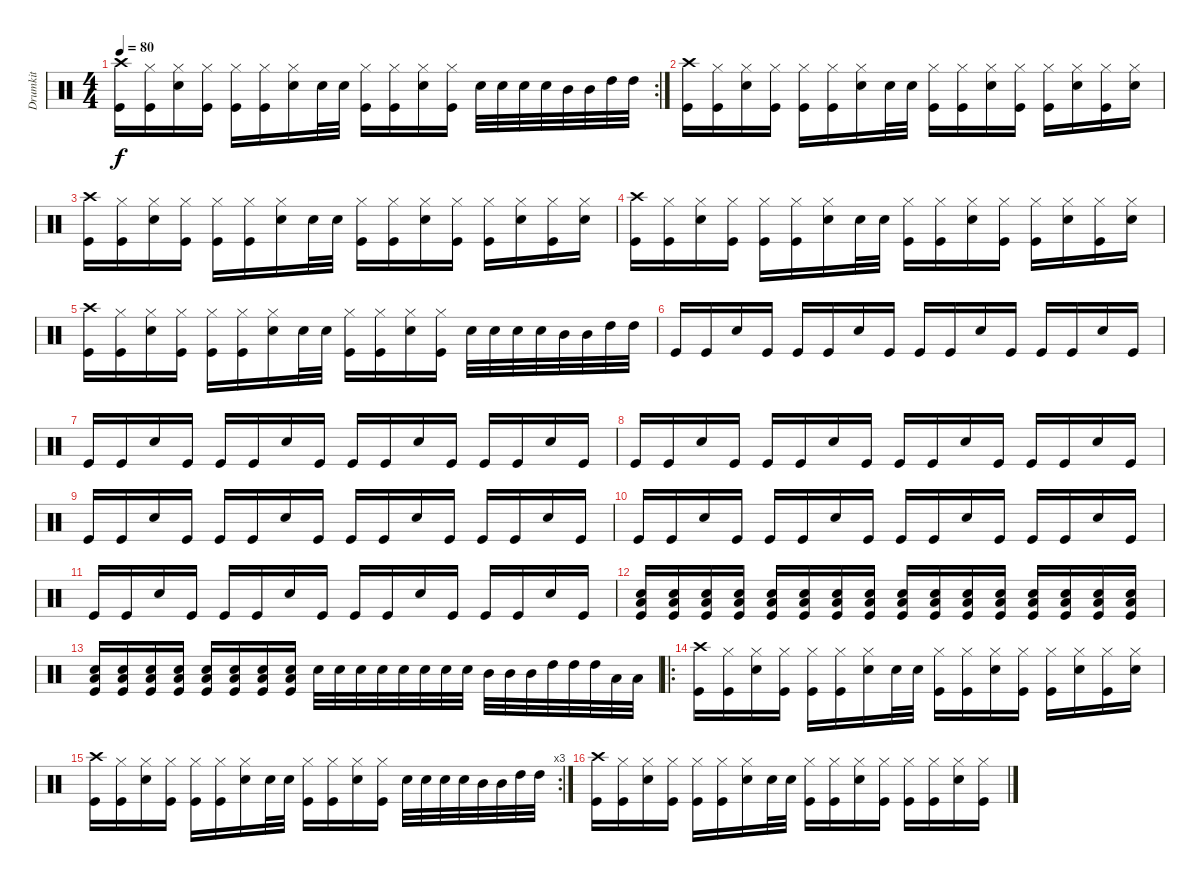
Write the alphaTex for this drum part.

\track ("Drumkit" "Drumkit") {instrument percussion}
\staff {score}
\articulation defaults
\rc 2
\ts (4 4)
\tempo 80
\clef neutral
\ks c
("Crash high (hit)" "Kick (hit)").16{dy f} ("Hi-Hat (closed)" "Kick (hit)").16 ("Hi-Hat (closed)" "Snare (hit) 2").16 ("Hi-Hat (closed)" "Kick (hit)").16 ("Hi-Hat (closed)" "Kick (hit)").16 ("Hi-Hat (closed)" "Kick (hit)").16 ("Hi-Hat (closed)" "Snare (hit) 2").16 "Snare (hit) 2".32 "Snare (hit) 2".32 ("Hi-Hat (closed)" "Kick (hit)").16 ("Hi-Hat (closed)" "Kick (hit)").16 ("Hi-Hat (closed)" "Snare (hit) 2").16 ("Hi-Hat (closed)" "Kick (hit)").16 "Snare (hit) 2".32 "Snare (hit) 2".32 "Snare (hit) 2".32 "Snare (hit) 2".32 "Mid Tom (hit)".32 "Mid Tom (hit)".32 "High Tom (hit)".32 "High Tom (hit)".32 |
("Crash high (hit)" "Kick (hit)").16 ("Hi-Hat (closed)" "Kick (hit)").16 ("Hi-Hat (closed)" "Snare (hit) 2").16 ("Hi-Hat (closed)" "Kick (hit)").16 ("Hi-Hat (closed)" "Kick (hit)").16 ("Hi-Hat (closed)" "Kick (hit)").16 ("Hi-Hat (closed)" "Snare (hit) 2").16 "Snare (hit) 2".32 "Snare (hit) 2".32 ("Hi-Hat (closed)" "Kick (hit)").16 ("Hi-Hat (closed)" "Kick (hit)").16 ("Hi-Hat (closed)" "Snare (hit) 2").16 ("Hi-Hat (closed)" "Kick (hit)").16 ("Hi-Hat (closed)" "Kick (hit)").16 ("Hi-Hat (closed)" "Snare (hit) 2").16 ("Hi-Hat (closed)" "Kick (hit)").16 ("Hi-Hat (closed)" "Snare (hit) 2").16 |
("Crash high (hit)" "Kick (hit)").16 ("Hi-Hat (closed)" "Kick (hit)").16 ("Hi-Hat (closed)" "Snare (hit) 2").16 ("Hi-Hat (closed)" "Kick (hit)").16 ("Hi-Hat (closed)" "Kick (hit)").16 ("Hi-Hat (closed)" "Kick (hit)").16 ("Hi-Hat (closed)" "Snare (hit) 2").16 "Snare (hit) 2".32 "Snare (hit) 2".32 ("Hi-Hat (closed)" "Kick (hit)").16 ("Hi-Hat (closed)" "Kick (hit)").16 ("Hi-Hat (closed)" "Snare (hit) 2").16 ("Hi-Hat (closed)" "Kick (hit)").16 ("Hi-Hat (closed)" "Kick (hit)").16 ("Hi-Hat (closed)" "Snare (hit) 2").16 ("Hi-Hat (closed)" "Kick (hit)").16 ("Hi-Hat (closed)" "Snare (hit) 2").16 |
("Crash high (hit)" "Kick (hit)").16 ("Hi-Hat (closed)" "Kick (hit)").16 ("Hi-Hat (closed)" "Snare (hit) 2").16 ("Hi-Hat (closed)" "Kick (hit)").16 ("Hi-Hat (closed)" "Kick (hit)").16 ("Hi-Hat (closed)" "Kick (hit)").16 ("Hi-Hat (closed)" "Snare (hit) 2").16 "Snare (hit) 2".32 "Snare (hit) 2".32 ("Hi-Hat (closed)" "Kick (hit)").16 ("Hi-Hat (closed)" "Kick (hit)").16 ("Hi-Hat (closed)" "Snare (hit) 2").16 ("Hi-Hat (closed)" "Kick (hit)").16 ("Hi-Hat (closed)" "Kick (hit)").16 ("Hi-Hat (closed)" "Snare (hit) 2").16 ("Hi-Hat (closed)" "Kick (hit)").16 ("Hi-Hat (closed)" "Snare (hit) 2").16 |
("Crash high (hit)" "Kick (hit)").16 ("Hi-Hat (closed)" "Kick (hit)").16 ("Hi-Hat (closed)" "Snare (hit) 2").16 ("Hi-Hat (closed)" "Kick (hit)").16 ("Hi-Hat (closed)" "Kick (hit)").16 ("Hi-Hat (closed)" "Kick (hit)").16 ("Hi-Hat (closed)" "Snare (hit) 2").16 "Snare (hit) 2".32 "Snare (hit) 2".32 ("Hi-Hat (closed)" "Kick (hit)").16 ("Hi-Hat (closed)" "Kick (hit)").16 ("Hi-Hat (closed)" "Snare (hit) 2").16 ("Hi-Hat (closed)" "Kick (hit)").16 "Snare (hit) 2".32 "Snare (hit) 2".32 "Snare (hit) 2".32 "Snare (hit) 2".32 "Mid Tom (hit)".32 "Mid Tom (hit)".32 "High Tom (hit)".32 "High Tom (hit)".32 |
"Kick (hit)".16 "Kick (hit)".16 "Snare (hit) 2".16 "Kick (hit)".16 "Kick (hit)".16 "Kick (hit)".16 "Snare (hit) 2".16 "Kick (hit)".16 "Kick (hit)".16 "Kick (hit)".16 "Snare (hit) 2".16 "Kick (hit)".16 "Kick (hit)".16 "Kick (hit)".16 "Snare (hit) 2".16 "Kick (hit)".16 |
"Kick (hit)".16 "Kick (hit)".16 "Snare (hit) 2".16 "Kick (hit)".16 "Kick (hit)".16 "Kick (hit)".16 "Snare (hit) 2".16 "Kick (hit)".16 "Kick (hit)".16 "Kick (hit)".16 "Snare (hit) 2".16 "Kick (hit)".16 "Kick (hit)".16 "Kick (hit)".16 "Snare (hit) 2".16 "Kick (hit)".16 |
"Kick (hit)".16 "Kick (hit)".16 "Snare (hit) 2".16 "Kick (hit)".16 "Kick (hit)".16 "Kick (hit)".16 "Snare (hit) 2".16 "Kick (hit)".16 "Kick (hit)".16 "Kick (hit)".16 "Snare (hit) 2".16 "Kick (hit)".16 "Kick (hit)".16 "Kick (hit)".16 "Snare (hit) 2".16 "Kick (hit)".16 |
"Kick (hit)".16 "Kick (hit)".16 "Snare (hit) 2".16 "Kick (hit)".16 "Kick (hit)".16 "Kick (hit)".16 "Snare (hit) 2".16 "Kick (hit)".16 "Kick (hit)".16 "Kick (hit)".16 "Snare (hit) 2".16 "Kick (hit)".16 "Kick (hit)".16 "Kick (hit)".16 "Snare (hit) 2".16 "Kick (hit)".16 |
"Kick (hit)".16 "Kick (hit)".16 "Snare (hit) 2".16 "Kick (hit)".16 "Kick (hit)".16 "Kick (hit)".16 "Snare (hit) 2".16 "Kick (hit)".16 "Kick (hit)".16 "Kick (hit)".16 "Snare (hit) 2".16 "Kick (hit)".16 "Kick (hit)".16 "Kick (hit)".16 "Snare (hit) 2".16 "Kick (hit)".16 |
"Kick (hit)".16 "Kick (hit)".16 "Snare (hit) 2".16 "Kick (hit)".16 "Kick (hit)".16 "Kick (hit)".16 "Snare (hit) 2".16 "Kick (hit)".16 "Kick (hit)".16 "Kick (hit)".16 "Snare (hit) 2".16 "Kick (hit)".16 "Kick (hit)".16 "Kick (hit)".16 "Snare (hit) 2".16 "Kick (hit)".16 |
("Kick (hit)" "Low Tom (hit)" "Snare (hit) 2").16 ("Kick (hit)" "Low Tom (hit)" "Snare (hit) 2").16 ("Kick (hit)" "Low Tom (hit)" "Snare (hit) 2").16 ("Kick (hit)" "Low Tom (hit)" "Snare (hit) 2").16 ("Kick (hit)" "Low Tom (hit)" "Snare (hit) 2").16 ("Kick (hit)" "Low Tom (hit)" "Snare (hit) 2").16 ("Kick (hit)" "Low Tom (hit)" "Snare (hit) 2").16 ("Kick (hit)" "Low Tom (hit)" "Snare (hit) 2").16 ("Kick (hit)" "Low Tom (hit)" "Snare (hit) 2").16 ("Kick (hit)" "Low Tom (hit)" "Snare (hit) 2").16 ("Kick (hit)" "Low Tom (hit)" "Snare (hit) 2").16 ("Kick (hit)" "Low Tom (hit)" "Snare (hit) 2").16 ("Kick (hit)" "Low Tom (hit)" "Snare (hit) 2").16 ("Kick (hit)" "Low Tom (hit)" "Snare (hit) 2").16 ("Kick (hit)" "Low Tom (hit)" "Snare (hit) 2").16 ("Kick (hit)" "Low Tom (hit)" "Snare (hit) 2").16 |
("Kick (hit)" "Low Tom (hit)" "Snare (hit) 2").16 ("Kick (hit)" "Low Tom (hit)" "Snare (hit) 2").16 ("Kick (hit)" "Low Tom (hit)" "Snare (hit) 2").16 ("Kick (hit)" "Low Tom (hit)" "Snare (hit) 2").16 ("Kick (hit)" "Low Tom (hit)" "Snare (hit) 2").16 ("Kick (hit)" "Low Tom (hit)" "Snare (hit) 2").16 ("Kick (hit)" "Low Tom (hit)" "Snare (hit) 2").16 ("Kick (hit)" "Low Tom (hit)" "Snare (hit) 2").16 "Snare (hit) 2".32 "Snare (hit) 2".32 "Snare (hit) 2".32 "Snare (hit) 2".32 "Snare (hit) 2".32 "Snare (hit) 2".32 "Snare (hit) 2".32 "Snare (hit) 2".32 "Mid Tom (hit)".32 "Mid Tom (hit)".32 "Mid Tom (hit)".32 "High Tom (hit)".32 "High Tom (hit)".32 "High Tom (hit)".32 "Low Tom (hit)".32 "Low Tom (hit)".32 |
\ro
("Crash high (hit)" "Kick (hit)").16 ("Hi-Hat (closed)" "Kick (hit)").16 ("Hi-Hat (closed)" "Snare (hit) 2").16 ("Hi-Hat (closed)" "Kick (hit)").16 ("Hi-Hat (closed)" "Kick (hit)").16 ("Hi-Hat (closed)" "Kick (hit)").16 ("Hi-Hat (closed)" "Snare (hit) 2").16 "Snare (hit) 2".32 "Snare (hit) 2".32 ("Hi-Hat (closed)" "Kick (hit)").16 ("Hi-Hat (closed)" "Kick (hit)").16 ("Hi-Hat (closed)" "Snare (hit) 2").16 ("Hi-Hat (closed)" "Kick (hit)").16 ("Hi-Hat (closed)" "Kick (hit)").16 ("Hi-Hat (closed)" "Snare (hit) 2").16 ("Hi-Hat (closed)" "Kick (hit)").16 ("Hi-Hat (closed)" "Snare (hit) 2").16 |
\rc 3
("Crash high (hit)" "Kick (hit)").16 ("Hi-Hat (closed)" "Kick (hit)").16 ("Hi-Hat (closed)" "Snare (hit) 2").16 ("Hi-Hat (closed)" "Kick (hit)").16 ("Hi-Hat (closed)" "Kick (hit)").16 ("Hi-Hat (closed)" "Kick (hit)").16 ("Hi-Hat (closed)" "Snare (hit) 2").16 "Snare (hit) 2".32 "Snare (hit) 2".32 ("Hi-Hat (closed)" "Kick (hit)").16 ("Hi-Hat (closed)" "Kick (hit)").16 ("Hi-Hat (closed)" "Snare (hit) 2").16 ("Hi-Hat (closed)" "Kick (hit)").16 "Snare (hit) 2".32 "Snare (hit) 2".32 "Snare (hit) 2".32 "Snare (hit) 2".32 "Mid Tom (hit)".32 "Mid Tom (hit)".32 "High Tom (hit)".32 "High Tom (hit)".32 |
("Crash high (hit)" "Kick (hit)").16 ("Hi-Hat (closed)" "Kick (hit)").16 ("Hi-Hat (closed)" "Snare (hit) 2").16 ("Hi-Hat (closed)" "Kick (hit)").16 ("Hi-Hat (closed)" "Kick (hit)").16 ("Hi-Hat (closed)" "Kick (hit)").16 ("Hi-Hat (closed)" "Snare (hit) 2").16 "Snare (hit) 2".32 "Snare (hit) 2".32 ("Hi-Hat (closed)" "Kick (hit)").16 ("Hi-Hat (closed)" "Kick (hit)").16 ("Hi-Hat (closed)" "Snare (hit) 2").16 ("Hi-Hat (closed)" "Kick (hit)").16 ("Hi-Hat (closed)" "Kick (hit)").16 ("Hi-Hat (closed)" "Kick (hit)").16 ("Hi-Hat (closed)" "Snare (hit) 2").16 ("Hi-Hat (closed)" "Kick (hit)").16
